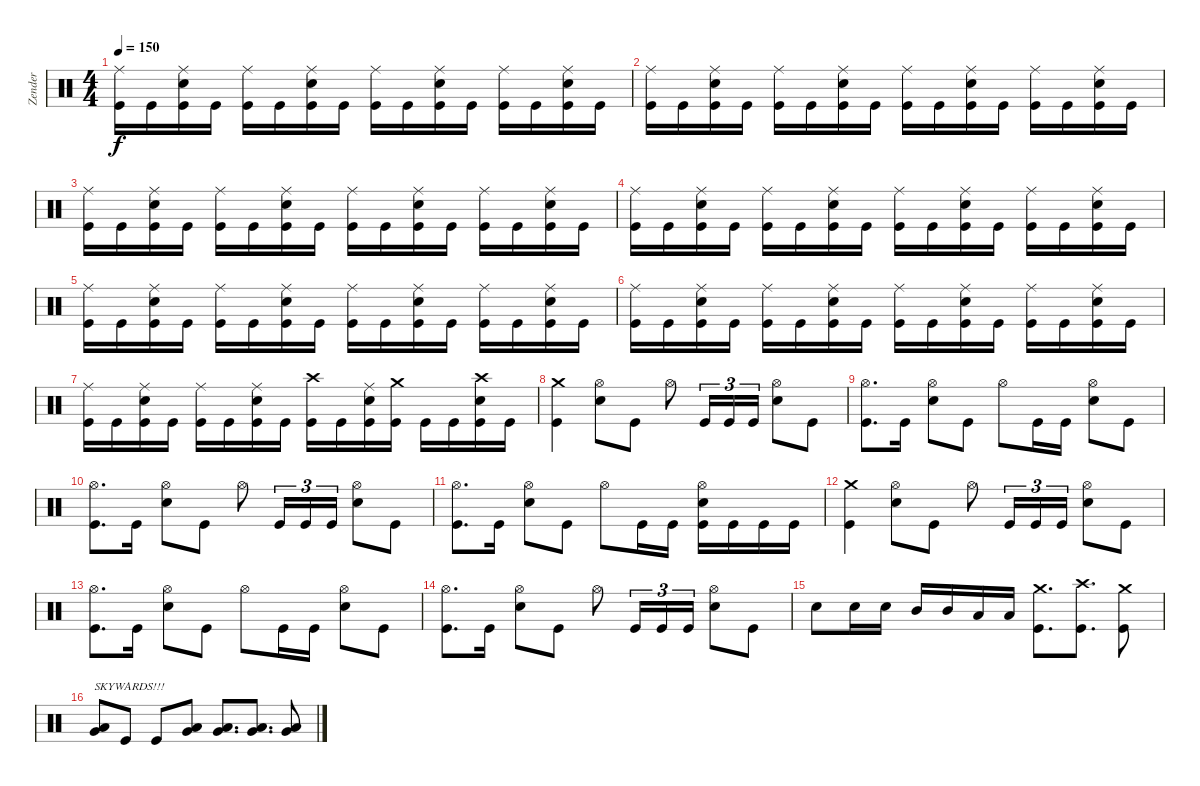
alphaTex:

\track ("Zender" "Zender") {instrument percussion}
\staff {score}
\articulation defaults
\ts (4 4)
\tempo 150
\clef neutral
\ks c
("Ride (middle)" "Kick (hit)").16{dy f} "Kick (hit)".16 ("Ride (middle)" "Snare (hit) 2" "Kick (hit)").16 "Kick (hit)".16 ("Ride (middle)" "Kick (hit)").16 "Kick (hit)".16 ("Ride (middle)" "Snare (hit) 2" "Kick (hit)").16 "Kick (hit)".16 ("Ride (middle)" "Kick (hit)").16 "Kick (hit)".16 ("Ride (middle)" "Snare (hit) 2" "Kick (hit)").16 "Kick (hit)".16 ("Ride (middle)" "Kick (hit)").16 "Kick (hit)".16 ("Ride (middle)" "Snare (hit) 2" "Kick (hit)").16 "Kick (hit)".16 |
("Ride (middle)" "Kick (hit)").16 "Kick (hit)".16 ("Ride (middle)" "Snare (hit) 2" "Kick (hit)").16 "Kick (hit)".16 ("Ride (middle)" "Kick (hit)").16 "Kick (hit)".16 ("Ride (middle)" "Snare (hit) 2" "Kick (hit)").16 "Kick (hit)".16 ("Ride (middle)" "Kick (hit)").16 "Kick (hit)".16 ("Ride (middle)" "Snare (hit) 2" "Kick (hit)").16 "Kick (hit)".16 ("Ride (middle)" "Kick (hit)").16 "Kick (hit)".16 ("Ride (middle)" "Snare (hit) 2" "Kick (hit)").16 "Kick (hit)".16 |
("Ride (middle)" "Kick (hit)").16 "Kick (hit)".16 ("Ride (middle)" "Snare (hit) 2" "Kick (hit)").16 "Kick (hit)".16 ("Ride (middle)" "Kick (hit)").16 "Kick (hit)".16 ("Ride (middle)" "Snare (hit) 2" "Kick (hit)").16 "Kick (hit)".16 ("Ride (middle)" "Kick (hit)").16 "Kick (hit)".16 ("Ride (middle)" "Snare (hit) 2" "Kick (hit)").16 "Kick (hit)".16 ("Ride (middle)" "Kick (hit)").16 "Kick (hit)".16 ("Ride (middle)" "Snare (hit) 2" "Kick (hit)").16 "Kick (hit)".16 |
("Ride (middle)" "Kick (hit)").16 "Kick (hit)".16 ("Ride (middle)" "Snare (hit) 2" "Kick (hit)").16 "Kick (hit)".16 ("Ride (middle)" "Kick (hit)").16 "Kick (hit)".16 ("Ride (middle)" "Snare (hit) 2" "Kick (hit)").16 "Kick (hit)".16 ("Ride (middle)" "Kick (hit)").16 "Kick (hit)".16 ("Ride (middle)" "Snare (hit) 2" "Kick (hit)").16 "Kick (hit)".16 ("Ride (middle)" "Kick (hit)").16 "Kick (hit)".16 ("Ride (middle)" "Snare (hit) 2" "Kick (hit)").16 "Kick (hit)".16 |
("Ride (middle)" "Kick (hit)").16 "Kick (hit)".16 ("Ride (middle)" "Snare (hit) 2" "Kick (hit)").16 "Kick (hit)".16 ("Ride (middle)" "Kick (hit)").16 "Kick (hit)".16 ("Ride (middle)" "Snare (hit) 2" "Kick (hit)").16 "Kick (hit)".16 ("Ride (middle)" "Kick (hit)").16 "Kick (hit)".16 ("Ride (middle)" "Snare (hit) 2" "Kick (hit)").16 "Kick (hit)".16 ("Ride (middle)" "Kick (hit)").16 "Kick (hit)".16 ("Ride (middle)" "Snare (hit) 2" "Kick (hit)").16 "Kick (hit)".16 |
("Ride (middle)" "Kick (hit)").16 "Kick (hit)".16 ("Ride (middle)" "Snare (hit) 2" "Kick (hit)").16 "Kick (hit)".16 ("Ride (middle)" "Kick (hit)").16 "Kick (hit)".16 ("Ride (middle)" "Snare (hit) 2" "Kick (hit)").16 "Kick (hit)".16 ("Ride (middle)" "Kick (hit)").16 "Kick (hit)".16 ("Ride (middle)" "Snare (hit) 2" "Kick (hit)").16 "Kick (hit)".16 ("Ride (middle)" "Kick (hit)").16 "Kick (hit)".16 ("Ride (middle)" "Snare (hit) 2" "Kick (hit)").16 "Kick (hit)".16 |
("Ride (middle)" "Kick (hit)").16 "Kick (hit)".16 ("Ride (middle)" "Snare (hit) 2" "Kick (hit)").16 "Kick (hit)".16 ("Ride (middle)" "Kick (hit)").16 "Kick (hit)".16 ("Ride (middle)" "Snare (hit) 2" "Kick (hit)").16 "Kick (hit)".16 ("Crash high (hit)" "Kick (hit)").16 "Kick (hit)".16 ("Ride (middle)" "Snare (hit) 2" "Kick (hit)").16 ("Crash medium (hit)" "Kick (hit)").16 "Kick (hit)".16 "Kick (hit)".16 ("Crash high (hit)" "Snare (hit) 2" "Kick (hit)").16 "Kick (hit)".16 |
("Crash medium (hit)" "Kick (hit)").4 ("Hi-Hat (open)" "Snare (hit) 2").8 "Kick (hit)".8 "Hi-Hat (open)".8 "Kick (hit)".16{tu (3 2)} "Kick (hit)".16{tu (3 2)} "Kick (hit)".16{tu (3 2)} ("Hi-Hat (open)" "Snare (hit) 2").8 "Kick (hit)".8 |
("Hi-Hat (open)" "Kick (hit)").8{d} "Kick (hit)".16 ("Hi-Hat (open)" "Snare (hit) 2").8 "Kick (hit)".8 "Hi-Hat (open)".8 "Kick (hit)".16 "Kick (hit)".16 ("Hi-Hat (open)" "Snare (hit) 2").8 "Kick (hit)".8 |
("Hi-Hat (open)" "Kick (hit)").8{d} "Kick (hit)".16 ("Hi-Hat (open)" "Snare (hit) 2").8 "Kick (hit)".8 "Hi-Hat (open)".8 "Kick (hit)".16{tu (3 2)} "Kick (hit)".16{tu (3 2)} "Kick (hit)".16{tu (3 2)} ("Hi-Hat (open)" "Snare (hit) 2").8 "Kick (hit)".8 |
("Hi-Hat (open)" "Kick (hit)").8{d} "Kick (hit)".16 ("Hi-Hat (open)" "Snare (hit) 2").8 "Kick (hit)".8 "Hi-Hat (open)".8 "Kick (hit)".16 "Kick (hit)".16 ("Hi-Hat (open)" "Snare (hit) 2" "Kick (hit)").16 "Kick (hit)".16 "Kick (hit)".16 "Kick (hit)".16 |
("Crash medium (hit)" "Kick (hit)").4 ("Hi-Hat (open)" "Snare (hit) 2").8 "Kick (hit)".8 "Hi-Hat (open)".8 "Kick (hit)".16{tu (3 2)} "Kick (hit)".16{tu (3 2)} "Kick (hit)".16{tu (3 2)} ("Hi-Hat (open)" "Snare (hit) 2").8 "Kick (hit)".8 |
("Hi-Hat (open)" "Kick (hit)").8{d} "Kick (hit)".16 ("Hi-Hat (open)" "Snare (hit) 2").8 "Kick (hit)".8 "Hi-Hat (open)".8 "Kick (hit)".16 "Kick (hit)".16 ("Hi-Hat (open)" "Snare (hit) 2").8 "Kick (hit)".8 |
("Hi-Hat (open)" "Kick (hit)").8{d} "Kick (hit)".16 ("Hi-Hat (open)" "Snare (hit) 2").8 "Kick (hit)".8 "Hi-Hat (open)".8 "Kick (hit)".16{tu (3 2)} "Kick (hit)".16{tu (3 2)} "Kick (hit)".16{tu (3 2)} ("Hi-Hat (open)" "Snare (hit) 2").8 "Kick (hit)".8 |
"Snare (hit) 2".8 "Snare (hit) 2".16 "Snare (hit) 2".16 "Mid Tom (hit)".16 "Mid Tom (hit)".16 "Low Tom (hit)".16 "Low Tom (hit)".16 ("Crash medium (hit)" "Kick (hit)").8{d} ("Crash high (hit)" "Kick (hit)").8{d} ("Crash medium (hit)" "Kick (hit)").8 |
("Low Tom (hit)" "Very Low Tom (hit)").8{txt "SKYWARDS!!!"} "Kick (hit)".8 "Kick (hit)".8 ("Low Tom (hit)" "Very Low Tom (hit)").8 ("Very Low Tom (hit)" "Low Floor Tom (hit)").8{d} ("Very Low Tom (hit)" "Low Floor Tom (hit)").8{d} ("Very Low Tom (hit)" "Low Floor Tom (hit)").8
